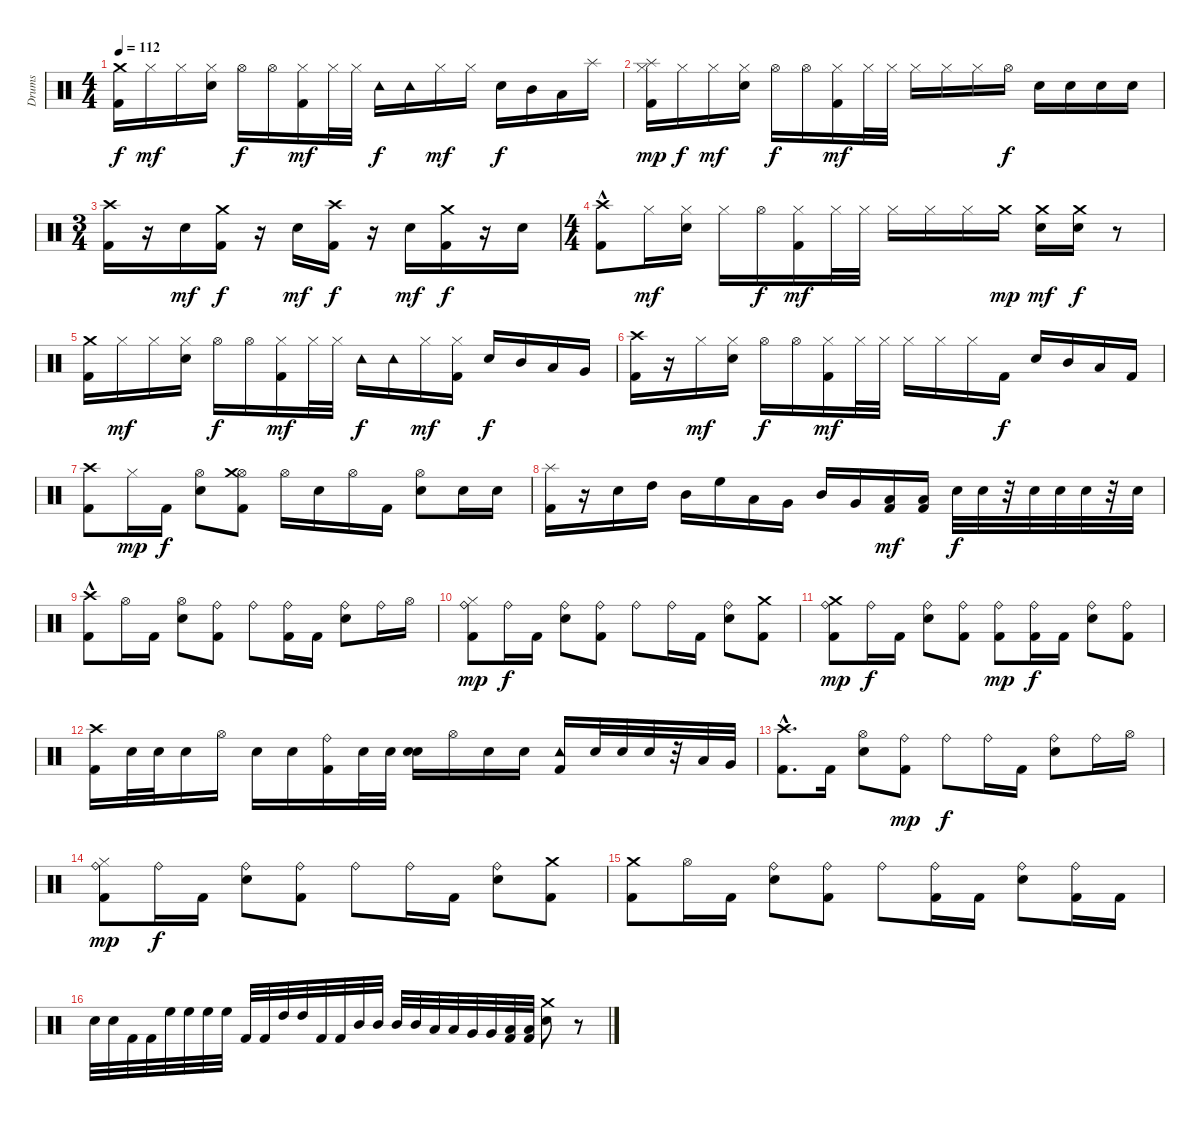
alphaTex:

\track ("Drums" "Drums") {instrument percussion}
\staff {score}
\articulation defaults
\ts (4 4)
\tempo 112
\clef neutral
\ks c
("Kick (hit) 2" "Crash medium (hit)").16{dy f} "Hi-Hat (closed)".16{dy mf} "Hi-Hat (closed)".16 ("Electric Snare (hit)" "Hi-Hat (closed)").16 "Hi-Hat (open)".16{dy f} "Hi-Hat (open)".16 ("Kick (hit) 2" "Hi-Hat (closed)").16{dy mf} "Hi-Hat (closed)".32 "Hi-Hat (closed)".32 "Tambourine (hit)".16{dy f} "Tambourine (hit)".16 "Hi-Hat (closed)".16{dy mf} "Hi-Hat (closed)".16 "Electric Snare (hit)".16{dy f} "Mid Tom (hit)".16 "Low Tom (hit)".16 "Splash (hit)".16 |
("Kick (hit) 2" "Splash (hit)" "Hi-Hat (closed)").16{dy mp} "Hi-Hat (closed)".16{dy f} "Hi-Hat (closed)".16{dy mf} ("Electric Snare (hit)" "Hi-Hat (closed)").16 "Hi-Hat (open)".16{dy f} "Hi-Hat (open)".16 ("Kick (hit) 2" "Hi-Hat (closed)").16{dy mf} "Hi-Hat (closed)".32 "Hi-Hat (closed)".32 "Hi-Hat (closed)".16 "Hi-Hat (closed)".16 "Hi-Hat (closed)".16 "Hi-Hat (open)".16{dy f} "Electric Snare (hit)".16 "Electric Snare (hit)".16 "Electric Snare (hit)".16 "Electric Snare (hit)".16 |
\ts (3 4)
("Kick (hit) 2" "Crash high (hit)").16 r.16 "Electric Snare (hit)".16{dy mf} ("Kick (hit) 2" "Crash medium (hit)").16{dy f} r.16 "Electric Snare (hit)".16{dy mf} ("Kick (hit) 2" "Crash high (hit)").16{dy f} r.16 "Electric Snare (hit)".16{dy mf} ("Kick (hit) 2" "Crash medium (hit)").16{dy f} r.16 "Electric Snare (hit)".16 |
\ts (4 4)
("Kick (hit) 2"{hac} "Crash high (hit)").8 "Hi-Hat (closed)".16{dy mf} ("Electric Snare (hit)" "Hi-Hat (closed)").16 "Hi-Hat (closed)".16 "Hi-Hat (open)".16{dy f} ("Kick (hit) 2" "Hi-Hat (closed)").16{dy mf} "Hi-Hat (closed)".32 "Hi-Hat (closed)".32 "Hi-Hat (closed)".16 "Hi-Hat (closed)".16 "Hi-Hat (closed)".16 "Crash medium (hit)".16{dy mp} ("Electric Snare (hit)" "Crash medium (hit)").16{dy mf} ("Electric Snare (hit)" "Crash medium (hit)").16{dy f} r.8 |
("Crash medium (hit)" "Kick (hit) 2").16 "Hi-Hat (closed)".16{dy mf} "Hi-Hat (closed)".16 ("Electric Snare (hit)" "Hi-Hat (closed)").16 "Hi-Hat (open)".16{dy f} "Hi-Hat (open)".16 ("Kick (hit) 2" "Hi-Hat (closed)").16{dy mf} "Hi-Hat (closed)".32 "Hi-Hat (closed)".32 "Tambourine (hit)".16{dy f} "Tambourine (hit)".16 "Hi-Hat (closed)".16{dy mf} ("Kick (hit) 2" "Hi-Hat (closed)").16 "Electric Snare (hit)".16{dy f} "Mid Tom (hit)".16 "Low Tom (hit)".16 "Very Low Tom (hit)".16 |
("Crash high (hit)" "Kick (hit) 2").16 r.16 "Hi-Hat (closed)".16{dy mf} ("Electric Snare (hit)" "Hi-Hat (closed)").16 "Hi-Hat (open)".16{dy f} "Hi-Hat (open)".16 ("Kick (hit) 2" "Hi-Hat (closed)").16{dy mf} "Hi-Hat (closed)".32 "Hi-Hat (closed)".32 "Hi-Hat (closed)".16 "Hi-Hat (closed)".16 "Hi-Hat (closed)".16 "Kick (hit) 2".16{dy f} "Electric Snare (hit)".16 "Mid Tom (hit)".16 "Low Tom (hit)".16 "Kick (hit) 2".16 |
("Crash high (hit)" "Kick (hit) 2").8 "Hi-Hat (closed)".16{dy mp} "Kick (hit) 2".16{dy f} ("Electric Snare (hit)" "Hi-Hat (open)").8 ("Hi-Hat (open)" "Kick (hit) 2" "Crash medium (hit)").8 "Hi-Hat (open)".16 "Electric Snare (hit)".16 "Hi-Hat (open)".16 "Kick (hit) 2".16 ("Electric Snare (hit)" "Hi-Hat (open)").8 "Electric Snare (hit)".16 "Electric Snare (hit)".16 |
("Splash (hit)" "Kick (hit) 2").16 r.16 "Electric Snare (hit)".16 "High Tom (hit)".16 "Mid Tom (hit)".16 "High Floor Tom (hit)".16 "Low Tom (hit)".16 "Very Low Tom (hit)".16 "Mid Tom (hit)".16 "Very Low Tom (hit)".16 ("Kick (hit) 2" "Low Floor Tom (hit)").16{dy mf} ("Kick (hit) 2" "Low Floor Tom (hit)").16 "Electric Snare (hit)".32{dy f} "Electric Snare (hit)".32 r.32 "Electric Snare (hit)".32 "Electric Snare (hit)".32 "Electric Snare (hit)".32 r.32 "Electric Snare (hit)".32 |
("Crash high (hit)" "Kick (hit) 2"{hac}).8 "Hi-Hat (open)".16 "Kick (hit) 2".16 ("Electric Snare (hit)" "Hi-Hat (open)").8 ("Kick (hit) 2" "Ride (bell)").8 "Ride (bell)".8 ("Kick (hit) 2" "Ride (bell)").16 "Kick (hit) 2".16 ("Electric Snare (hit)" "Ride (bell)").8 "Ride (bell)".16 "Hi-Hat (open)".16 |
("Ride (bell)" "Hi-Hat (closed)" "Kick (hit) 2").8{dy mp} "Ride (bell)".16{dy f} "Kick (hit) 2".16 ("Electric Snare (hit)" "Ride (bell)").8 ("Kick (hit) 2" "Ride (bell)").8 "Ride (bell)".8 "Ride (bell)".16 "Kick (hit) 2".16 ("Ride (bell)" "Electric Snare (hit)").8 ("Kick (hit) 2" "Crash medium (hit)").8 |
("Kick (hit) 2" "Ride (bell)" "Crash medium (hit)").8{dy mp} "Ride (bell)".16{dy f} "Kick (hit) 2".16 ("Electric Snare (hit)" "Ride (bell)").8 ("Ride (bell)" "Kick (hit) 2").8 ("Ride (bell)" "Kick (hit) 2").8{dy mp} ("Ride (bell)" "Kick (hit) 2").16{dy f} "Kick (hit) 2".16 ("Ride (bell)" "Electric Snare (hit)").8 ("Kick (hit) 2" "Ride (bell)").8 |
("Crash high (hit)" "Kick (hit) 2").16 "Electric Snare (hit)".32 "Electric Snare (hit)".32 "Electric Snare (hit)".16 "Hi-Hat (open)".16 "Electric Snare (hit)".16 "Electric Snare (hit)".16 ("Kick (hit) 2" "Ride (bell)").16 "Electric Snare (hit)".32 "Electric Snare (hit)".32 ("Electric Snare (hit)" "Electric Snare (hit)").16 "Hi-Hat (open)".16 "Electric Snare (hit)".16 "Electric Snare (hit)".16 ("Kick (hit) 2" "Tambourine (hit)").16 "Electric Snare (hit)".32 "Electric Snare (hit)".32 "Electric Snare (hit)".32 r.32 "Low Tom (hit)".32 "Very Low Tom (hit)".32 |
("Kick (hit) 2"{hac} "Crash high (hit)").8{d} "Kick (hit) 2".16 ("Electric Snare (hit)" "Hi-Hat (open)").8 ("Kick (hit) 2" "Ride (bell)").8{dy mp} "Ride (bell)".8{dy f} "Ride (bell)".16 "Kick (hit) 2".16 ("Electric Snare (hit)" "Ride (bell)").8 "Ride (bell)".16 "Hi-Hat (open)".16 |
("Ride (bell)" "Hi-Hat (closed)" "Kick (hit) 2").8{dy mp} "Ride (bell)".16{dy f} "Kick (hit) 2".16 ("Electric Snare (hit)" "Ride (bell)").8 ("Kick (hit) 2" "Ride (bell)").8 "Ride (bell)".8 "Ride (bell)".16 "Kick (hit) 2".16 ("Ride (bell)" "Electric Snare (hit)").8 ("Kick (hit) 2" "Crash medium (hit)").8 |
("Kick (hit) 2" "Crash medium (hit)").8 "Hi-Hat (open)".16 "Kick (hit) 2".16 ("Electric Snare (hit)" "Ride (bell)").8 ("Ride (bell)" "Kick (hit) 2").8 "Ride (bell)".8 ("Kick (hit) 2" "Ride (bell)").16 "Kick (hit) 2".16 ("Ride (bell)" "Electric Snare (hit)").8 ("Ride (bell)" "Kick (hit) 2").16 "Kick (hit) 2".16 |
"Electric Snare (hit)".32 "Electric Snare (hit)".32 "Kick (hit) 2".32 "Kick (hit) 2".32 "High Floor Tom (hit)".32 "High Floor Tom (hit)".32 "High Floor Tom (hit)".32 "High Floor Tom (hit)".32 "Kick (hit) 2".32 "Kick (hit) 2".32 "High Tom (hit)".32 "High Tom (hit)".32 "Kick (hit) 2".32 "Kick (hit) 2".32 "Mid Tom (hit)".32 "Mid Tom (hit)".32 "Mid Tom (hit)".32 "Mid Tom (hit)".32 "Low Tom (hit)".32 "Low Tom (hit)".32 "Very Low Tom (hit)".32 "Very Low Tom (hit)".32 ("Low Floor Tom (hit)" "Kick (hit) 2").32 ("Low Floor Tom (hit)" "Kick (hit) 2").32 ("Electric Snare (hit)" "Crash medium (hit)").8 r.8
